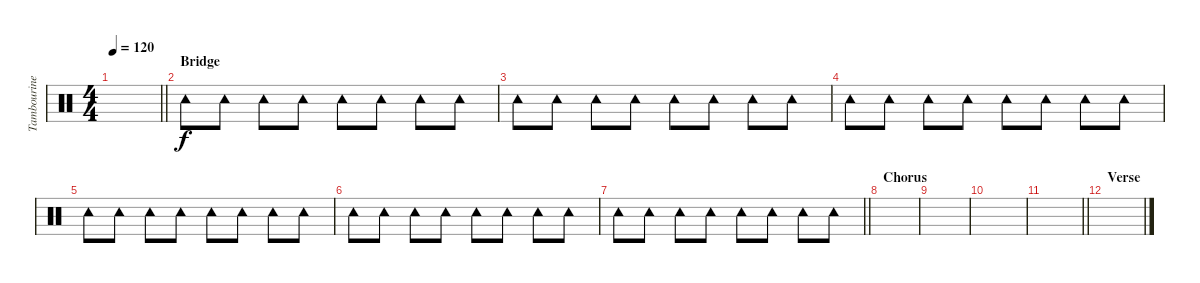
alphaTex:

\track ("Tambourine" "Tambourine") {instrument percussion}
\staff {score}
\articulation defaults
\ts (4 4)
\tempo 120
\clef neutral
\barLineRight lightlight
\ks c
|
\section ("" "Bridge")
"Tambourine (hit)".8 "Tambourine (hit)".8 "Tambourine (hit)".8 "Tambourine (hit)".8 "Tambourine (hit)".8 "Tambourine (hit)".8 "Tambourine (hit)".8 "Tambourine (hit)".8 |
"Tambourine (hit)".8 "Tambourine (hit)".8 "Tambourine (hit)".8 "Tambourine (hit)".8 "Tambourine (hit)".8 "Tambourine (hit)".8 "Tambourine (hit)".8 "Tambourine (hit)".8 |
"Tambourine (hit)".8 "Tambourine (hit)".8 "Tambourine (hit)".8 "Tambourine (hit)".8 "Tambourine (hit)".8 "Tambourine (hit)".8 "Tambourine (hit)".8 "Tambourine (hit)".8 |
"Tambourine (hit)".8 "Tambourine (hit)".8 "Tambourine (hit)".8 "Tambourine (hit)".8 "Tambourine (hit)".8 "Tambourine (hit)".8 "Tambourine (hit)".8 "Tambourine (hit)".8 |
"Tambourine (hit)".8 "Tambourine (hit)".8 "Tambourine (hit)".8 "Tambourine (hit)".8 "Tambourine (hit)".8 "Tambourine (hit)".8 "Tambourine (hit)".8 "Tambourine (hit)".8 |
\barLineRight lightlight "Tambourine (hit)".8 "Tambourine (hit)".8 "Tambourine (hit)".8 "Tambourine (hit)".8 "Tambourine (hit)".8 "Tambourine (hit)".8 "Tambourine (hit)".8 "Tambourine (hit)".8
|
\section ("" "Chorus")
|
|
|
\barLineRight lightlight
|
\section ("" "Verse")
